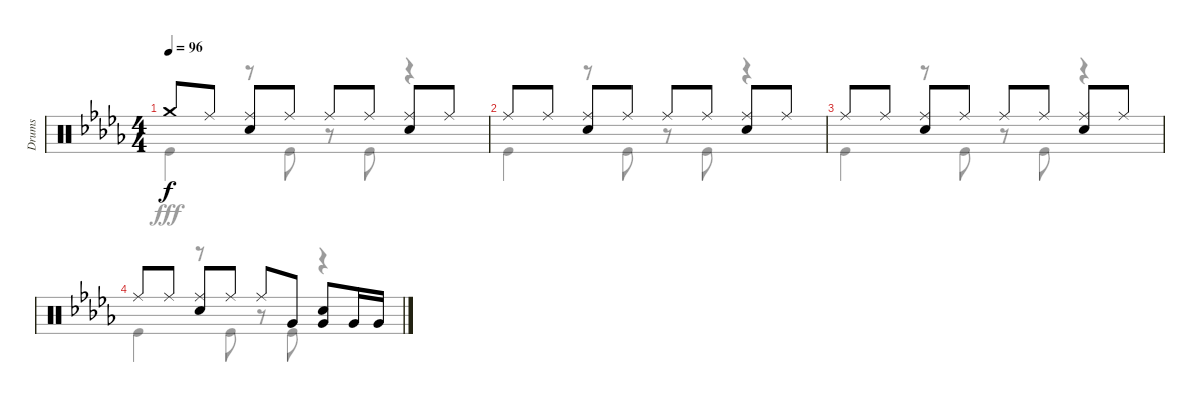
\track ("Drums" "Drums") {instrument percussion}
\staff {score}
\articulation defaults
\voice
\ts (4 4)
\tempo 96
\clef neutral
\ks db "Crash medium (hit)".8{dy f} "Ride (middle)".8
("Ride (middle)" "Snare (hit) 2").8 "Ride (middle)".8 "Ride (middle)".8 "Ride (middle)".8 ("Ride (middle)" "Snare (hit) 2").8 "Ride (middle)".8 |
"Ride (middle)".8 "Ride (middle)".8 ("Ride (middle)" "Snare (hit) 2").8 "Ride (middle)".8 "Ride (middle)".8 "Ride (middle)".8 ("Ride (middle)" "Snare (hit) 2").8 "Ride (middle)".8 |
"Ride (middle)".8 "Ride (middle)".8 ("Ride (middle)" "Snare (hit) 2").8 "Ride (middle)".8 "Ride (middle)".8 "Ride (middle)".8 ("Ride (middle)" "Snare (hit) 2").8 "Ride (middle)".8 |
"Ride (middle)".8 "Ride (middle)".8 ("Ride (middle)" "Snare (hit) 2").8 "Ride (middle)".8 "Ride (middle)".8 "Very Low Tom (hit)".8 ("Snare (hit) 2" "Very Low Tom (hit)").8 "Very Low Tom (hit)".16 "Very Low Tom (hit)".16
\voice
\clef neutral
\ottava regular
\simile none
\ks db "Kick (hit)".4{dy fff}
r.8 "Kick (hit)".8 r.8 "Kick (hit)".8 r.4 |
"Kick (hit)".4 r.8 "Kick (hit)".8 r.8 "Kick (hit)".8 r.4 |
"Kick (hit)".4 r.8 "Kick (hit)".8 r.8 "Kick (hit)".8 r.4 |
"Kick (hit)".4 r.8 "Kick (hit)".8 r.8 "Kick (hit)".8 r.4
